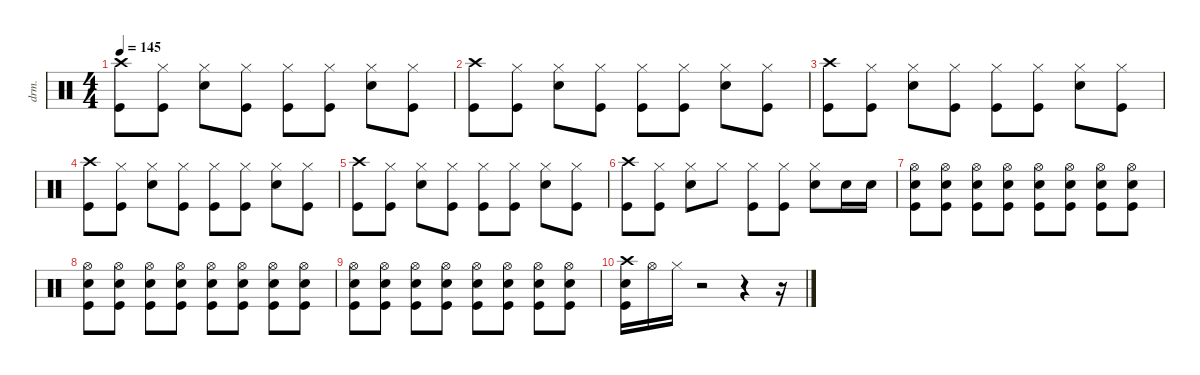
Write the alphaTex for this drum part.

\defaultSystemsLayout 4
\hideDynamics
\bracketExtendMode nobrackets
\otherSystemsTrackNameOrientation horizontal
\track ("Drums" "drm.") {instrument percussion}
\staff {score}
\articulation defaults
\ts (4 4)
\tempo 145
\clef neutral
\ks c
("Crash high (hit)" "Kick (hit)").8{dy f} ("Kick (hit)" "Hi-Hat (closed)").8 ("Snare (hit) 2" "Hi-Hat (closed)").8 ("Kick (hit)" "Hi-Hat (closed)").8 ("Kick (hit)" "Hi-Hat (closed)").8 ("Kick (hit)" "Hi-Hat (closed)").8 ("Snare (hit) 2" "Hi-Hat (closed)").8 ("Kick (hit)" "Hi-Hat (closed)").8 |
("Crash high (hit)" "Kick (hit)").8 ("Kick (hit)" "Hi-Hat (closed)").8 ("Snare (hit) 2" "Hi-Hat (closed)").8 ("Kick (hit)" "Hi-Hat (closed)").8 ("Kick (hit)" "Hi-Hat (closed)").8 ("Kick (hit)" "Hi-Hat (closed)").8 ("Snare (hit) 2" "Hi-Hat (closed)").8 ("Kick (hit)" "Hi-Hat (closed)").8 |
("Crash high (hit)" "Kick (hit)").8 ("Kick (hit)" "Hi-Hat (closed)").8 ("Snare (hit) 2" "Hi-Hat (closed)").8 ("Kick (hit)" "Hi-Hat (closed)").8 ("Kick (hit)" "Hi-Hat (closed)").8 ("Kick (hit)" "Hi-Hat (closed)").8 ("Snare (hit) 2" "Hi-Hat (closed)").8 ("Kick (hit)" "Hi-Hat (closed)").8 |
("Crash high (hit)" "Kick (hit)").8 ("Kick (hit)" "Hi-Hat (closed)").8 ("Snare (hit) 2" "Hi-Hat (closed)").8 ("Kick (hit)" "Hi-Hat (closed)").8 ("Kick (hit)" "Hi-Hat (closed)").8 ("Kick (hit)" "Hi-Hat (closed)").8 ("Snare (hit) 2" "Hi-Hat (closed)").8 ("Kick (hit)" "Hi-Hat (closed)").8 |
("Crash high (hit)" "Kick (hit)").8 ("Kick (hit)" "Hi-Hat (closed)").8 ("Snare (hit) 2" "Hi-Hat (closed)").8 ("Kick (hit)" "Hi-Hat (closed)").8 ("Kick (hit)" "Hi-Hat (closed)").8 ("Kick (hit)" "Hi-Hat (closed)").8 ("Snare (hit) 2" "Hi-Hat (closed)").8 ("Kick (hit)" "Hi-Hat (closed)").8 |
("Crash high (hit)" "Kick (hit)").8 ("Kick (hit)" "Hi-Hat (closed)").8 ("Snare (hit) 2" "Hi-Hat (closed)").8 "Hi-Hat (closed)".8 ("Kick (hit)" "Hi-Hat (closed)").8 ("Kick (hit)" "Hi-Hat (closed)").8 ("Snare (hit) 2" "Hi-Hat (closed)").8 "Snare (hit) 2".16 "Snare (hit) 2".16 |
("Hi-Hat (open)" "Snare (hit) 2" "Kick (hit)").8 ("Hi-Hat (open)" "Snare (hit) 2" "Kick (hit)").8 ("Hi-Hat (open)" "Snare (hit) 2" "Kick (hit)").8 ("Hi-Hat (open)" "Snare (hit) 2" "Kick (hit)").8 ("Hi-Hat (open)" "Snare (hit) 2" "Kick (hit)").8 ("Hi-Hat (open)" "Snare (hit) 2" "Kick (hit)").8 ("Hi-Hat (open)" "Snare (hit) 2" "Kick (hit)").8 ("Hi-Hat (open)" "Snare (hit) 2" "Kick (hit)").8 |
("Hi-Hat (open)" "Snare (hit) 2" "Kick (hit)").8 ("Hi-Hat (open)" "Snare (hit) 2" "Kick (hit)").8 ("Hi-Hat (open)" "Snare (hit) 2" "Kick (hit)").8 ("Hi-Hat (open)" "Snare (hit) 2" "Kick (hit)").8 ("Hi-Hat (open)" "Snare (hit) 2" "Kick (hit)").8 ("Hi-Hat (open)" "Snare (hit) 2" "Kick (hit)").8 ("Hi-Hat (open)" "Snare (hit) 2" "Kick (hit)").8 ("Hi-Hat (open)" "Snare (hit) 2" "Kick (hit)").8 |
("Hi-Hat (open)" "Snare (hit) 2" "Kick (hit)").8 ("Hi-Hat (open)" "Snare (hit) 2" "Kick (hit)").8 ("Hi-Hat (open)" "Snare (hit) 2" "Kick (hit)").8 ("Hi-Hat (open)" "Snare (hit) 2" "Kick (hit)").8 ("Hi-Hat (open)" "Snare (hit) 2" "Kick (hit)").8 ("Hi-Hat (open)" "Snare (hit) 2" "Kick (hit)").8 ("Hi-Hat (open)" "Snare (hit) 2" "Kick (hit)").8 ("Hi-Hat (open)" "Snare (hit) 2" "Kick (hit)").8 |
("Crash high (hit)" "Snare (hit) 2" "Kick (hit)").16 "Hi-Hat (open)".16 "Hi-Hat (closed)".16 r.2 r.4 r.16
